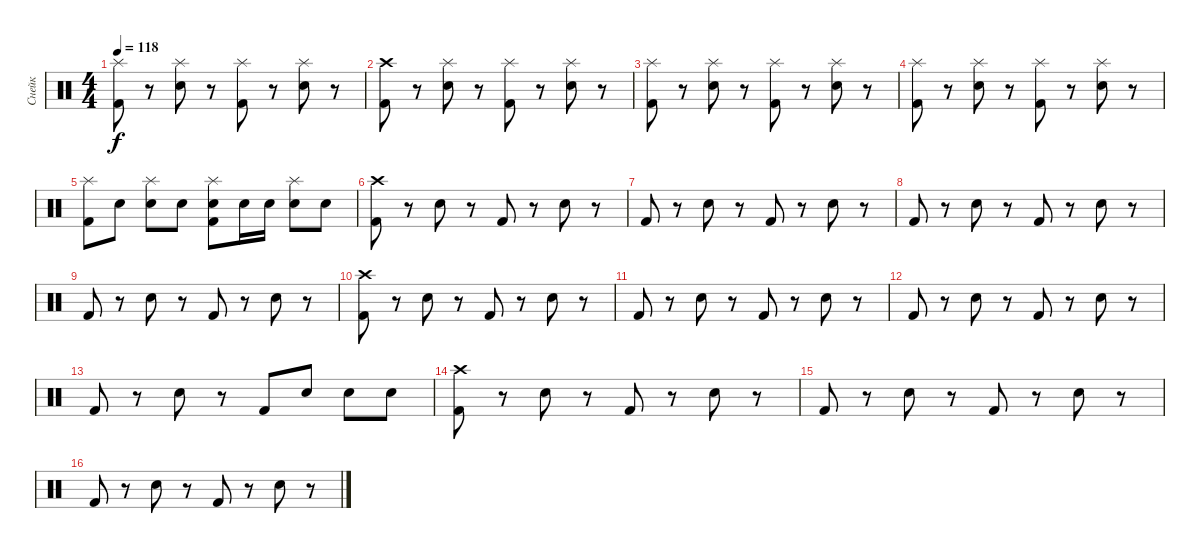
\track ("Снейк" "Снейк") {instrument percussion}
\staff {score}
\articulation defaults
\ts (4 4)
\tempo 118
\clef neutral
\ks c
("Splash (hit)" "Kick (hit) 2").8{dy f} r.8 ("Splash (hit)" "Electric Snare (hit)").8 r.8 ("Splash (hit)" "Kick (hit) 2").8 r.8 ("Splash (hit)" "Electric Snare (hit)").8 r.8 |
("Crash high (hit)" "Kick (hit) 2").8 r.8 ("Splash (hit)" "Electric Snare (hit)").8 r.8 ("Splash (hit)" "Kick (hit) 2").8 r.8 ("Splash (hit)" "Electric Snare (hit)").8 r.8 |
("Splash (hit)" "Kick (hit) 2").8 r.8 ("Splash (hit)" "Electric Snare (hit)").8 r.8 ("Splash (hit)" "Kick (hit) 2").8 r.8 ("Splash (hit)" "Electric Snare (hit)").8 r.8 |
("Splash (hit)" "Kick (hit) 2").8 r.8 ("Splash (hit)" "Electric Snare (hit)").8 r.8 ("Splash (hit)" "Kick (hit) 2").8 r.8 ("Splash (hit)" "Electric Snare (hit)").8 r.8 |
("Splash (hit)" "Kick (hit) 2").8 "Electric Snare (hit)".8 ("Splash (hit)" "Electric Snare (hit)").8 "Electric Snare (hit)".8 ("Splash (hit)" "Electric Snare (hit)" "Kick (hit) 2").8 "Electric Snare (hit)".16 "Electric Snare (hit)".16 ("Splash (hit)" "Electric Snare (hit)").8 "Electric Snare (hit)".8 |
("Crash high (hit)" "Kick (hit) 2").8 r.8 "Electric Snare (hit)".8 r.8 "Kick (hit) 2".8 r.8 "Electric Snare (hit)".8 r.8 |
"Kick (hit) 2".8 r.8 "Electric Snare (hit)".8 r.8 "Kick (hit) 2".8 r.8 "Electric Snare (hit)".8 r.8 |
"Kick (hit) 2".8 r.8 "Electric Snare (hit)".8 r.8 "Kick (hit) 2".8 r.8 "Electric Snare (hit)".8 r.8 |
"Kick (hit) 2".8 r.8 "Electric Snare (hit)".8 r.8 "Kick (hit) 2".8 r.8 "Electric Snare (hit)".8 r.8 |
("Crash high (hit)" "Kick (hit) 2").8 r.8 "Electric Snare (hit)".8 r.8 "Kick (hit) 2".8 r.8 "Electric Snare (hit)".8 r.8 |
"Kick (hit) 2".8 r.8 "Electric Snare (hit)".8 r.8 "Kick (hit) 2".8 r.8 "Electric Snare (hit)".8 r.8 |
"Kick (hit) 2".8 r.8 "Electric Snare (hit)".8 r.8 "Kick (hit) 2".8 r.8 "Electric Snare (hit)".8 r.8 |
"Kick (hit) 2".8 r.8 "Electric Snare (hit)".8 r.8 "Kick (hit) 2".8 "Electric Snare (hit)".8 "Electric Snare (hit)".8 "Electric Snare (hit)".8 |
("Crash high (hit)" "Kick (hit) 2").8 r.8 "Electric Snare (hit)".8 r.8 "Kick (hit) 2".8 r.8 "Electric Snare (hit)".8 r.8 |
"Kick (hit) 2".8 r.8 "Electric Snare (hit)".8 r.8 "Kick (hit) 2".8 r.8 "Electric Snare (hit)".8 r.8 |
"Kick (hit) 2".8 r.8 "Electric Snare (hit)".8 r.8 "Kick (hit) 2".8 r.8 "Electric Snare (hit)".8 r.8
